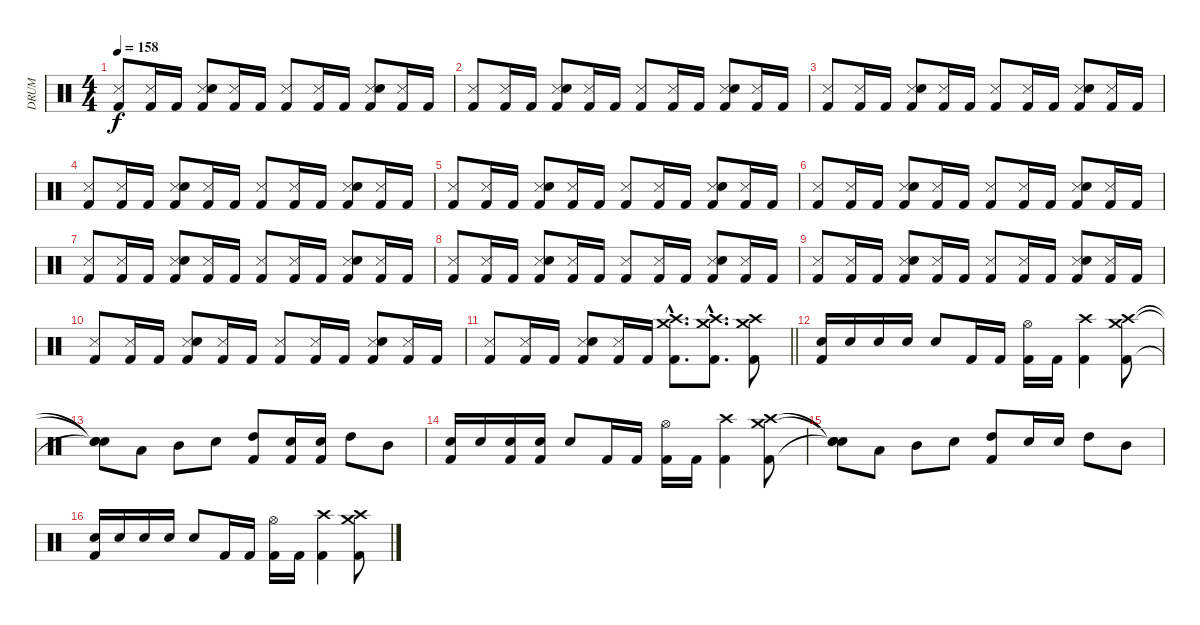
\track ("DRUM" "DRUM") {instrument percussion}
\staff {score}
\articulation defaults
\ts (4 4)
\tempo 158
\clef neutral
\ks c
("Metronome (hit)" "Kick (hit) 2").8{dy f} ("Metronome (hit)" "Kick (hit) 2").16 "Kick (hit) 2".16 ("Metronome (hit)" "Snare (hit) 2" "Kick (hit) 2").8 ("Metronome (hit)" "Kick (hit) 2").16 "Kick (hit) 2".16 ("Metronome (hit)" "Kick (hit) 2").8 ("Metronome (hit)" "Kick (hit) 2").16 "Kick (hit) 2".16 ("Metronome (hit)" "Snare (hit) 2" "Kick (hit) 2").8 ("Metronome (hit)" "Kick (hit) 2").16 "Kick (hit) 2".16 |
("Metronome (hit)" "Kick (hit) 2").8 ("Metronome (hit)" "Kick (hit) 2").16 "Kick (hit) 2".16 ("Metronome (hit)" "Snare (hit) 2" "Kick (hit) 2").8 ("Metronome (hit)" "Kick (hit) 2").16 "Kick (hit) 2".16 ("Metronome (hit)" "Kick (hit) 2").8 ("Metronome (hit)" "Kick (hit) 2").16 "Kick (hit) 2".16 ("Metronome (hit)" "Snare (hit) 2" "Kick (hit) 2").8 ("Metronome (hit)" "Kick (hit) 2").16 "Kick (hit) 2".16 |
("Metronome (hit)" "Kick (hit) 2").8 ("Metronome (hit)" "Kick (hit) 2").16 "Kick (hit) 2".16 ("Metronome (hit)" "Snare (hit) 2" "Kick (hit) 2").8 ("Metronome (hit)" "Kick (hit) 2").16 "Kick (hit) 2".16 ("Metronome (hit)" "Kick (hit) 2").8 ("Metronome (hit)" "Kick (hit) 2").16 "Kick (hit) 2".16 ("Metronome (hit)" "Snare (hit) 2" "Kick (hit) 2").8 ("Metronome (hit)" "Kick (hit) 2").16 "Kick (hit) 2".16 |
("Metronome (hit)" "Kick (hit) 2").8 ("Metronome (hit)" "Kick (hit) 2").16 "Kick (hit) 2".16 ("Metronome (hit)" "Snare (hit) 2" "Kick (hit) 2").8 ("Metronome (hit)" "Kick (hit) 2").16 "Kick (hit) 2".16 ("Metronome (hit)" "Kick (hit) 2").8 ("Metronome (hit)" "Kick (hit) 2").16 "Kick (hit) 2".16 ("Metronome (hit)" "Snare (hit) 2" "Kick (hit) 2").8 ("Metronome (hit)" "Kick (hit) 2").16 "Kick (hit) 2".16 |
("Metronome (hit)" "Kick (hit) 2").8 ("Metronome (hit)" "Kick (hit) 2").16 "Kick (hit) 2".16 ("Metronome (hit)" "Snare (hit) 2" "Kick (hit) 2").8 ("Metronome (hit)" "Kick (hit) 2").16 "Kick (hit) 2".16 ("Metronome (hit)" "Kick (hit) 2").8 ("Metronome (hit)" "Kick (hit) 2").16 "Kick (hit) 2".16 ("Metronome (hit)" "Snare (hit) 2" "Kick (hit) 2").8 ("Metronome (hit)" "Kick (hit) 2").16 "Kick (hit) 2".16 |
("Metronome (hit)" "Kick (hit) 2").8 ("Metronome (hit)" "Kick (hit) 2").16 "Kick (hit) 2".16 ("Metronome (hit)" "Snare (hit) 2" "Kick (hit) 2").8 ("Metronome (hit)" "Kick (hit) 2").16 "Kick (hit) 2".16 ("Metronome (hit)" "Kick (hit) 2").8 ("Metronome (hit)" "Kick (hit) 2").16 "Kick (hit) 2".16 ("Metronome (hit)" "Snare (hit) 2" "Kick (hit) 2").8 ("Metronome (hit)" "Kick (hit) 2").16 "Kick (hit) 2".16 |
("Metronome (hit)" "Kick (hit) 2").8 ("Metronome (hit)" "Kick (hit) 2").16 "Kick (hit) 2".16 ("Metronome (hit)" "Snare (hit) 2" "Kick (hit) 2").8 ("Metronome (hit)" "Kick (hit) 2").16 "Kick (hit) 2".16 ("Metronome (hit)" "Kick (hit) 2").8 ("Metronome (hit)" "Kick (hit) 2").16 "Kick (hit) 2".16 ("Metronome (hit)" "Snare (hit) 2" "Kick (hit) 2").8 ("Metronome (hit)" "Kick (hit) 2").16 "Kick (hit) 2".16 |
("Metronome (hit)" "Kick (hit) 2").8 ("Metronome (hit)" "Kick (hit) 2").16 "Kick (hit) 2".16 ("Metronome (hit)" "Snare (hit) 2" "Kick (hit) 2").8 ("Metronome (hit)" "Kick (hit) 2").16 "Kick (hit) 2".16 ("Metronome (hit)" "Kick (hit) 2").8 ("Metronome (hit)" "Kick (hit) 2").16 "Kick (hit) 2".16 ("Metronome (hit)" "Snare (hit) 2" "Kick (hit) 2").8 ("Metronome (hit)" "Kick (hit) 2").16 "Kick (hit) 2".16 |
("Metronome (hit)" "Kick (hit) 2").8 ("Metronome (hit)" "Kick (hit) 2").16 "Kick (hit) 2".16 ("Metronome (hit)" "Snare (hit) 2" "Kick (hit) 2").8 ("Metronome (hit)" "Kick (hit) 2").16 "Kick (hit) 2".16 ("Metronome (hit)" "Kick (hit) 2").8 ("Metronome (hit)" "Kick (hit) 2").16 "Kick (hit) 2".16 ("Metronome (hit)" "Snare (hit) 2" "Kick (hit) 2").8 ("Metronome (hit)" "Kick (hit) 2").16 "Kick (hit) 2".16 |
("Metronome (hit)" "Kick (hit) 2").8 ("Metronome (hit)" "Kick (hit) 2").16 "Kick (hit) 2".16 ("Metronome (hit)" "Snare (hit) 2" "Kick (hit) 2").8 ("Metronome (hit)" "Kick (hit) 2").16 "Kick (hit) 2".16 ("Metronome (hit)" "Kick (hit) 2").8 ("Metronome (hit)" "Kick (hit) 2").16 "Kick (hit) 2".16 ("Metronome (hit)" "Snare (hit) 2" "Kick (hit) 2").8 ("Metronome (hit)" "Kick (hit) 2").16 "Kick (hit) 2".16 |
\barLineRight lightlight
("Metronome (hit)" "Kick (hit) 2").8 ("Metronome (hit)" "Kick (hit) 2").16 "Kick (hit) 2".16 ("Metronome (hit)" "Snare (hit) 2" "Kick (hit) 2").8 ("Metronome (hit)" "Kick (hit) 2").16 "Kick (hit) 2".16 ("Crash medium (hit)"{hac} "Crash high (hit)"{hac} "Kick (hit) 2"{hac}).8{d} ("Crash medium (hit)"{hac} "Crash high (hit)"{hac} "Kick (hit) 2"{hac}).8{d} ("Crash medium (hit)" "Crash high (hit)" "Kick (hit) 2").8 |
("Electric Snare (hit)" "Kick (hit) 2").16 "Electric Snare (hit)".16 "Electric Snare (hit)".16 "Electric Snare (hit)".16 "Snare (hit) 2".8 "Kick (hit) 2".16 "Kick (hit) 2".16 ("Hi-Hat (open)" "Kick (hit) 2").16 "Kick (hit) 2".16 ("Crash high (hit)" "Kick (hit) 2").4 ("Crash medium (hit)" "Crash high (hit)" "Kick (hit) 2").8 |
("Snare (hit)"{t} "Snare (hit)"{t} "Snare (hit)"{t}).8 "Low Tom (hit)".8 "Mid Tom (hit)".8 "Snare (hit) 2".8 ("High Tom (hit)" "Kick (hit) 2").8 ("Snare (hit) 2" "Kick (hit) 2").16 ("Snare (hit) 2" "Kick (hit) 2").16 "High Tom (hit)".8 "Mid Tom (hit)".8 |
("Electric Snare (hit)" "Kick (hit) 2").16 "Electric Snare (hit)".16 ("Electric Snare (hit)" "Kick (hit) 2").16 ("Electric Snare (hit)" "Kick (hit) 2").16 "Snare (hit) 2".8 "Kick (hit) 2".16 "Kick (hit) 2".16 ("Hi-Hat (open)" "Kick (hit) 2").16 "Kick (hit) 2".16 ("Crash high (hit)" "Kick (hit) 2").4 ("Crash medium (hit)" "Crash high (hit)" "Kick (hit) 2").8 |
("Snare (hit)"{t} "Snare (hit)"{t} "Snare (hit)"{t}).8 "Low Tom (hit)".8 "Mid Tom (hit)".8 "Snare (hit) 2".8 ("High Tom (hit)" "Kick (hit) 2").8 "Snare (hit) 2".16 "Snare (hit) 2".16 "High Tom (hit)".8 "Mid Tom (hit)".8 |
("Electric Snare (hit)" "Kick (hit) 2").16 "Electric Snare (hit)".16 "Electric Snare (hit)".16 "Electric Snare (hit)".16 "Snare (hit) 2".8 "Kick (hit) 2".16 "Kick (hit) 2".16 ("Hi-Hat (open)" "Kick (hit) 2").16 "Kick (hit) 2".16 ("Crash high (hit)" "Kick (hit) 2").4 ("Crash medium (hit)" "Crash high (hit)" "Kick (hit) 2").8
